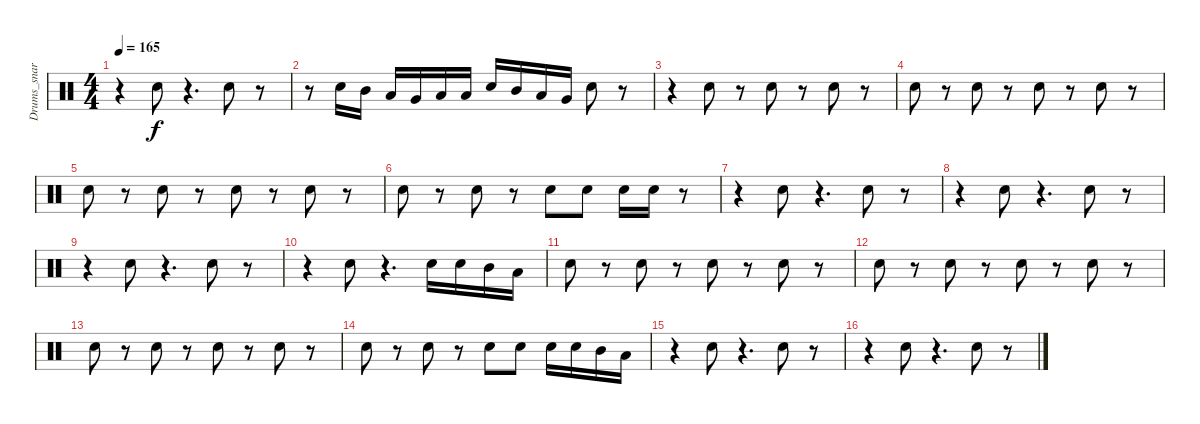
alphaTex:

\track ("Drums_snare&tom" "Drums_snar") {instrument percussion}
\staff {score}
\articulation defaults
\ts (4 4)
\tempo 165
\clef neutral
\ks c
r.4{dy f} "Snare (hit) 2".8 r.4{d} "Snare (hit) 2".8 r.8 |
r.8 "Snare (hit) 2".16 "Mid Tom (hit)".16 "Low Tom (hit)".16 "Very Low Tom (hit)".16 "Low Floor Tom (hit)".16 "Low Floor Tom (hit)".16 "Snare (hit) 2".16 "Mid Tom (hit)".16 "Low Tom (hit)".16 "Very Low Tom (hit)".16 "Snare (hit) 2".8 r.8 |
r.4 "Snare (hit) 2".8 r.8 "Snare (hit) 2".8 r.8 "Snare (hit) 2".8 r.8 |
"Snare (hit) 2".8 r.8 "Snare (hit) 2".8 r.8 "Snare (hit) 2".8 r.8 "Snare (hit) 2".8 r.8 |
"Snare (hit) 2".8 r.8 "Snare (hit) 2".8 r.8 "Snare (hit) 2".8 r.8 "Snare (hit) 2".8 r.8 |
"Snare (hit) 2".8 r.8 "Snare (hit) 2".8 r.8 "Snare (hit) 2".8 "Snare (hit) 2".8 "Snare (hit) 2".16 "Snare (hit) 2".16 r.8 |
r.4 "Snare (hit) 2".8 r.4{d} "Snare (hit) 2".8 r.8 |
r.4 "Snare (hit) 2".8 r.4{d} "Snare (hit) 2".8 r.8 |
r.4 "Snare (hit) 2".8 r.4{d} "Snare (hit) 2".8 r.8 |
r.4 "Snare (hit) 2".8 r.4{d} "Snare (hit) 2".16 "Snare (hit) 2".16 "Mid Tom (hit)".16 "Low Tom (hit)".16 |
"Snare (hit) 2".8 r.8 "Snare (hit) 2".8 r.8 "Snare (hit) 2".8 r.8 "Snare (hit) 2".8 r.8 |
"Snare (hit) 2".8 r.8 "Snare (hit) 2".8 r.8 "Snare (hit) 2".8 r.8 "Snare (hit) 2".8 r.8 |
"Snare (hit) 2".8 r.8 "Snare (hit) 2".8 r.8 "Snare (hit) 2".8 r.8 "Snare (hit) 2".8 r.8 |
"Snare (hit) 2".8 r.8 "Snare (hit) 2".8 r.8 "Snare (hit) 2".8 "Snare (hit) 2".8 "Snare (hit) 2".16 "Snare (hit) 2".16 "Mid Tom (hit)".16 "Low Tom (hit)".16 |
r.4 "Snare (hit) 2".8 r.4{d} "Snare (hit) 2".8 r.8 |
r.4 "Snare (hit) 2".8 r.4{d} "Snare (hit) 2".8 r.8
